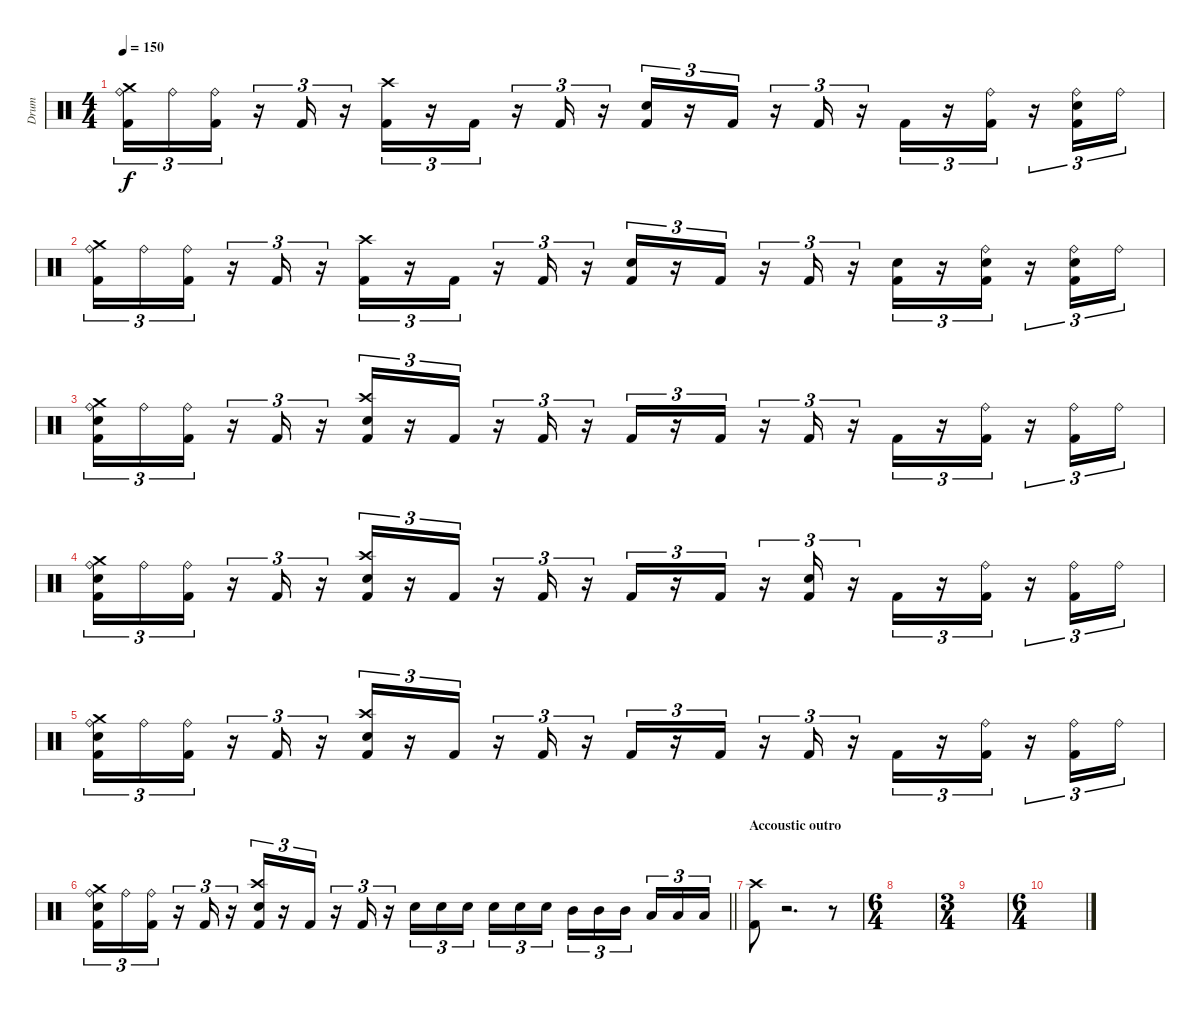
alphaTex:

\track ("Drum" "Drum") {instrument percussion}
\staff {score}
\articulation defaults
\ts (4 4)
\tempo 150
\clef neutral
\ks c
("Crash medium (hit)" "Ride (bell)" "Kick (hit) 2").16{tu (3 2) dy f} "Ride (bell)".16{tu (3 2)} ("Ride (bell)" "Kick (hit) 2").16{tu (3 2)} r.16{tu (3 2)} "Kick (hit) 2".16{tu (3 2)} r.16{tu (3 2)} ("Crash high (hit)" "Kick (hit) 2").16{tu (3 2)} r.16{tu (3 2)} "Kick (hit) 2".16{tu (3 2)} r.16{tu (3 2)} "Kick (hit) 2".16{tu (3 2)} r.16{tu (3 2)} ("Electric Snare (hit)" "Kick (hit) 2").16{tu (3 2)} r.16{tu (3 2)} "Kick (hit) 2".16{tu (3 2)} r.16{tu (3 2)} "Kick (hit) 2".16{tu (3 2)} r.16{tu (3 2)} "Kick (hit) 2".16{tu (3 2)} r.16{tu (3 2)} ("Ride (bell)" "Kick (hit) 2").16{tu (3 2)} r.16{tu (3 2)} ("Ride (bell)" "Electric Snare (hit)" "Kick (hit) 2").16{tu (3 2)} "Ride (bell)".16{tu (3 2)} |
("Crash medium (hit)" "Ride (bell)" "Kick (hit) 2").16{tu (3 2)} "Ride (bell)".16{tu (3 2)} ("Ride (bell)" "Kick (hit) 2").16{tu (3 2)} r.16{tu (3 2)} "Kick (hit) 2".16{tu (3 2)} r.16{tu (3 2)} ("Crash high (hit)" "Kick (hit) 2").16{tu (3 2)} r.16{tu (3 2)} "Kick (hit) 2".16{tu (3 2)} r.16{tu (3 2)} "Kick (hit) 2".16{tu (3 2)} r.16{tu (3 2)} ("Electric Snare (hit)" "Kick (hit) 2").16{tu (3 2)} r.16{tu (3 2)} "Kick (hit) 2".16{tu (3 2)} r.16{tu (3 2)} "Kick (hit) 2".16{tu (3 2)} r.16{tu (3 2)} ("Electric Snare (hit)" "Kick (hit) 2").16{tu (3 2)} r.16{tu (3 2)} ("Ride (bell)" "Electric Snare (hit)" "Kick (hit) 2").16{tu (3 2)} r.16{tu (3 2)} ("Ride (bell)" "Electric Snare (hit)" "Kick (hit) 2").16{tu (3 2)} "Ride (bell)".16{tu (3 2)} |
("Crash medium (hit)" "Ride (bell)" "Electric Snare (hit)" "Kick (hit) 2").16{tu (3 2)} "Ride (bell)".16{tu (3 2)} ("Ride (bell)" "Kick (hit) 2").16{tu (3 2)} r.16{tu (3 2)} "Kick (hit) 2".16{tu (3 2)} r.16{tu (3 2)} ("Crash high (hit)" "Electric Snare (hit)" "Kick (hit) 2").16{tu (3 2)} r.16{tu (3 2)} "Kick (hit) 2".16{tu (3 2)} r.16{tu (3 2)} "Kick (hit) 2".16{tu (3 2)} r.16{tu (3 2)} "Kick (hit) 2".16{tu (3 2)} r.16{tu (3 2)} "Kick (hit) 2".16{tu (3 2)} r.16{tu (3 2)} "Kick (hit) 2".16{tu (3 2)} r.16{tu (3 2)} "Kick (hit) 2".16{tu (3 2)} r.16{tu (3 2)} ("Ride (bell)" "Kick (hit) 2").16{tu (3 2)} r.16{tu (3 2)} ("Ride (bell)" "Kick (hit) 2").16{tu (3 2)} "Ride (bell)".16{tu (3 2)} |
("Crash medium (hit)" "Ride (bell)" "Electric Snare (hit)" "Kick (hit) 2").16{tu (3 2)} "Ride (bell)".16{tu (3 2)} ("Ride (bell)" "Kick (hit) 2").16{tu (3 2)} r.16{tu (3 2)} "Kick (hit) 2".16{tu (3 2)} r.16{tu (3 2)} ("Crash high (hit)" "Electric Snare (hit)" "Kick (hit) 2").16{tu (3 2)} r.16{tu (3 2)} "Kick (hit) 2".16{tu (3 2)} r.16{tu (3 2)} "Kick (hit) 2".16{tu (3 2)} r.16{tu (3 2)} "Kick (hit) 2".16{tu (3 2)} r.16{tu (3 2)} "Kick (hit) 2".16{tu (3 2)} r.16{tu (3 2)} ("Electric Snare (hit)" "Kick (hit) 2").16{tu (3 2)} r.16{tu (3 2)} "Kick (hit) 2".16{tu (3 2)} r.16{tu (3 2)} ("Ride (bell)" "Kick (hit) 2").16{tu (3 2)} r.16{tu (3 2)} ("Ride (bell)" "Kick (hit) 2").16{tu (3 2)} "Ride (bell)".16{tu (3 2)} |
("Crash medium (hit)" "Ride (bell)" "Electric Snare (hit)" "Kick (hit) 2").16{tu (3 2)} "Ride (bell)".16{tu (3 2)} ("Ride (bell)" "Kick (hit) 2").16{tu (3 2)} r.16{tu (3 2)} "Kick (hit) 2".16{tu (3 2)} r.16{tu (3 2)} ("Crash high (hit)" "Electric Snare (hit)" "Kick (hit) 2").16{tu (3 2)} r.16{tu (3 2)} "Kick (hit) 2".16{tu (3 2)} r.16{tu (3 2)} "Kick (hit) 2".16{tu (3 2)} r.16{tu (3 2)} "Kick (hit) 2".16{tu (3 2)} r.16{tu (3 2)} "Kick (hit) 2".16{tu (3 2)} r.16{tu (3 2)} "Kick (hit) 2".16{tu (3 2)} r.16{tu (3 2)} "Kick (hit) 2".16{tu (3 2)} r.16{tu (3 2)} ("Ride (bell)" "Kick (hit) 2").16{tu (3 2)} r.16{tu (3 2)} ("Ride (bell)" "Kick (hit) 2").16{tu (3 2)} "Ride (bell)".16{tu (3 2)} |
\barLineRight lightlight
("Crash medium (hit)" "Ride (bell)" "Electric Snare (hit)" "Kick (hit) 2").16{tu (3 2)} "Ride (bell)".16{tu (3 2)} ("Ride (bell)" "Kick (hit) 2").16{tu (3 2)} r.16{tu (3 2)} "Kick (hit) 2".16{tu (3 2)} r.16{tu (3 2)} ("Crash high (hit)" "Electric Snare (hit)" "Kick (hit) 2").16{tu (3 2)} r.16{tu (3 2)} "Kick (hit) 2".16{tu (3 2)} r.16{tu (3 2)} "Kick (hit) 2".16{tu (3 2)} r.16{tu (3 2)} "Electric Snare (hit)".16{tu (3 2)} "Electric Snare (hit)".16{tu (3 2)} "Electric Snare (hit)".16{tu (3 2) beam splitsecondary} "Electric Snare (hit)".16{tu (3 2)} "Electric Snare (hit)".16{tu (3 2)} "Electric Snare (hit)".16{tu (3 2)} "Mid Tom (hit)".16{tu (3 2)} "Mid Tom (hit)".16{tu (3 2)} "Mid Tom (hit)".16{tu (3 2) beam splitsecondary} "Low Tom (hit)".16{tu (3 2)} "Low Tom (hit)".16{tu (3 2)} "Low Tom (hit)".16{tu (3 2)} |
\section ("" "Accoustic outro")
("Crash high (hit)" "Kick (hit) 2").8 r.2{d} r.8 |
\ts (6 4)
|
\ts (3 4)
|
\ts (6 4)
